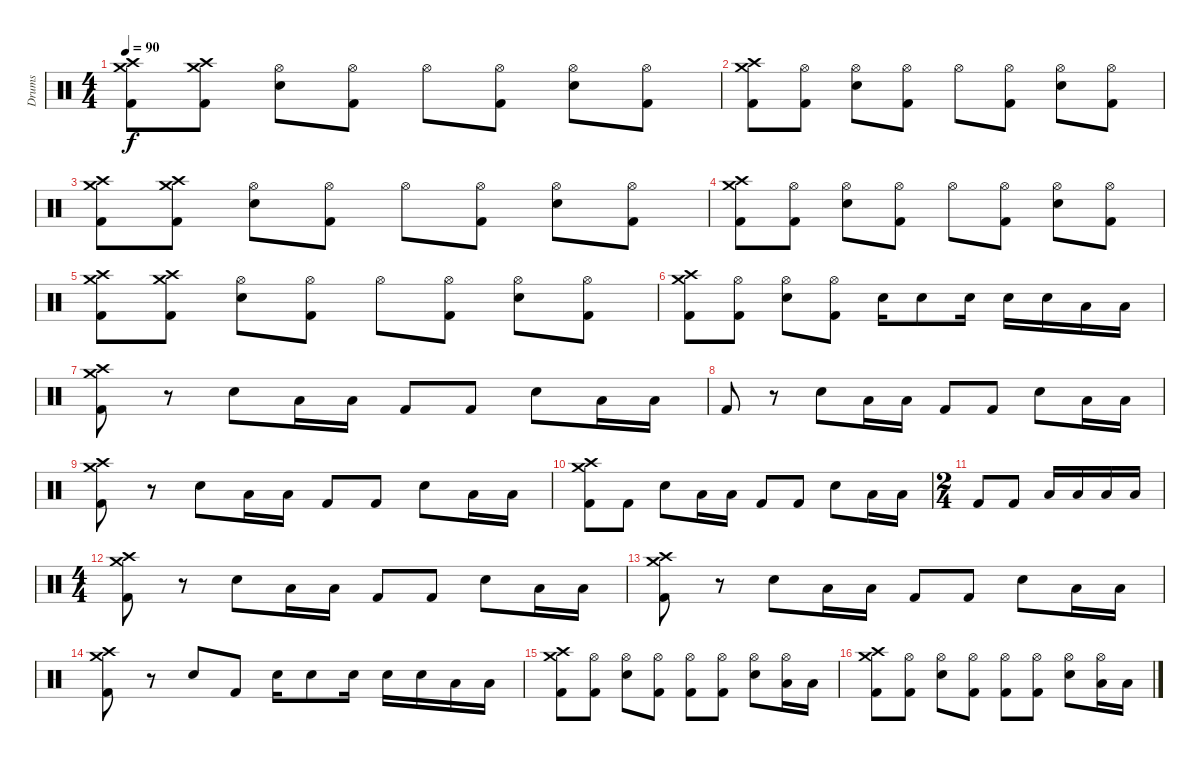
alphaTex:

\track ("Drums" "Drums") {instrument percussion}
\staff {score}
\articulation defaults
\ts (4 4)
\tempo 90
\clef neutral
\ks c
("Crash high (hit)" "Crash medium (hit)" "Kick (hit) 2").8{dy f} ("Crash high (hit)" "Crash medium (hit)" "Kick (hit) 2").8 ("Hi-Hat (open)" "Snare (hit) 2").8 ("Hi-Hat (open)" "Kick (hit) 2").8 "Hi-Hat (open)".8 ("Hi-Hat (open)" "Kick (hit) 2").8 ("Hi-Hat (open)" "Snare (hit) 2").8 ("Hi-Hat (open)" "Kick (hit) 2").8 |
("Crash high (hit)" "Crash medium (hit)" "Kick (hit) 2").8 ("Hi-Hat (open)" "Kick (hit) 2").8 ("Hi-Hat (open)" "Snare (hit) 2").8 ("Hi-Hat (open)" "Kick (hit) 2").8 "Hi-Hat (open)".8 ("Hi-Hat (open)" "Kick (hit) 2").8 ("Hi-Hat (open)" "Snare (hit) 2").8 ("Hi-Hat (open)" "Kick (hit) 2").8 |
("Crash high (hit)" "Crash medium (hit)" "Kick (hit) 2").8 ("Crash high (hit)" "Crash medium (hit)" "Kick (hit) 2").8 ("Hi-Hat (open)" "Snare (hit) 2").8 ("Hi-Hat (open)" "Kick (hit) 2").8 "Hi-Hat (open)".8 ("Hi-Hat (open)" "Kick (hit) 2").8 ("Hi-Hat (open)" "Snare (hit) 2").8 ("Hi-Hat (open)" "Kick (hit) 2").8 |
("Crash high (hit)" "Crash medium (hit)" "Kick (hit) 2").8 ("Hi-Hat (open)" "Kick (hit) 2").8 ("Hi-Hat (open)" "Snare (hit) 2").8 ("Hi-Hat (open)" "Kick (hit) 2").8 "Hi-Hat (open)".8 ("Hi-Hat (open)" "Kick (hit) 2").8 ("Hi-Hat (open)" "Snare (hit) 2").8 ("Hi-Hat (open)" "Kick (hit) 2").8 |
("Crash high (hit)" "Crash medium (hit)" "Kick (hit) 2").8 ("Crash high (hit)" "Crash medium (hit)" "Kick (hit) 2").8 ("Hi-Hat (open)" "Snare (hit) 2").8 ("Hi-Hat (open)" "Kick (hit) 2").8 "Hi-Hat (open)".8 ("Hi-Hat (open)" "Kick (hit) 2").8 ("Hi-Hat (open)" "Snare (hit) 2").8 ("Hi-Hat (open)" "Kick (hit) 2").8 |
("Crash high (hit)" "Crash medium (hit)" "Kick (hit) 2").8 ("Hi-Hat (open)" "Kick (hit) 2").8 ("Hi-Hat (open)" "Snare (hit) 2").8 ("Hi-Hat (open)" "Kick (hit) 2").8 "Snare (hit) 2".16 "Snare (hit) 2".8 "Snare (hit) 2".16 "Snare (hit) 2".16 "Snare (hit) 2".16 "Low Tom (hit)".16 "Low Tom (hit)".16 |
("Crash high (hit)" "Crash medium (hit)" "Kick (hit) 2").8 r.8 "Snare (hit) 2".8 "Low Tom (hit)".16 "Low Tom (hit)".16 "Kick (hit) 2".8 "Kick (hit) 2".8 "Snare (hit) 2".8 "Low Tom (hit)".16 "Low Tom (hit)".16 |
"Kick (hit) 2".8 r.8 "Snare (hit) 2".8 "Low Tom (hit)".16 "Low Tom (hit)".16 "Kick (hit) 2".8 "Kick (hit) 2".8 "Snare (hit) 2".8 "Low Tom (hit)".16 "Low Tom (hit)".16 |
("Crash high (hit)" "Crash medium (hit)" "Kick (hit) 2").8 r.8 "Snare (hit) 2".8 "Low Tom (hit)".16 "Low Tom (hit)".16 "Kick (hit) 2".8 "Kick (hit) 2".8 "Snare (hit) 2".8 "Low Tom (hit)".16 "Low Tom (hit)".16 |
("Crash high (hit)" "Crash medium (hit)" "Kick (hit) 2").8 "Kick (hit) 2".8 "Snare (hit) 2".8 "Low Tom (hit)".16 "Low Tom (hit)".16 "Kick (hit) 2".8 "Kick (hit) 2".8 "Snare (hit) 2".8 "Low Tom (hit)".16 "Low Tom (hit)".16 |
\ts (2 4)
"Kick (hit) 2".8 "Kick (hit) 2".8 "Low Tom (hit)".16 "Low Tom (hit)".16 "Low Floor Tom (hit)".16 "Low Floor Tom (hit)".16 |
\ts (4 4)
("Crash high (hit)" "Crash medium (hit)" "Kick (hit) 2").8 r.8 "Snare (hit) 2".8 "Low Tom (hit)".16 "Low Tom (hit)".16 "Kick (hit) 2".8 "Kick (hit) 2".8 "Snare (hit) 2".8 "Low Tom (hit)".16 "Low Tom (hit)".16 |
("Crash high (hit)" "Crash medium (hit)" "Kick (hit) 2").8 r.8 "Snare (hit) 2".8 "Low Tom (hit)".16 "Low Tom (hit)".16 "Kick (hit) 2".8 "Kick (hit) 2".8 "Snare (hit) 2".8 "Low Tom (hit)".16 "Low Tom (hit)".16 |
("Crash high (hit)" "Crash medium (hit)" "Kick (hit) 2").8 r.8 "Snare (hit) 2".8 "Kick (hit) 2".8 "Snare (hit) 2".16 "Snare (hit) 2".8 "Snare (hit) 2".16 "Snare (hit) 2".16 "Snare (hit) 2".16 "Low Tom (hit)".16 "Low Tom (hit)".16 |
("Crash high (hit)" "Crash medium (hit)" "Kick (hit) 2").8 ("Hi-Hat (open)" "Kick (hit) 2").8 ("Hi-Hat (open)" "Snare (hit) 2").8 ("Hi-Hat (open)" "Kick (hit) 2").8 ("Hi-Hat (open)" "Kick (hit) 2").8 ("Hi-Hat (open)" "Kick (hit) 2").8 ("Hi-Hat (open)" "Snare (hit) 2").8 ("Hi-Hat (open)" "Low Tom (hit)").16 "Low Tom (hit)".16 |
("Crash high (hit)" "Crash medium (hit)" "Kick (hit) 2").8 ("Hi-Hat (open)" "Kick (hit) 2").8 ("Hi-Hat (open)" "Snare (hit) 2").8 ("Hi-Hat (open)" "Kick (hit) 2").8 ("Hi-Hat (open)" "Kick (hit) 2").8 ("Hi-Hat (open)" "Kick (hit) 2").8 ("Hi-Hat (open)" "Snare (hit) 2").8 ("Hi-Hat (open)" "Low Tom (hit)").16 "Low Tom (hit)".16
